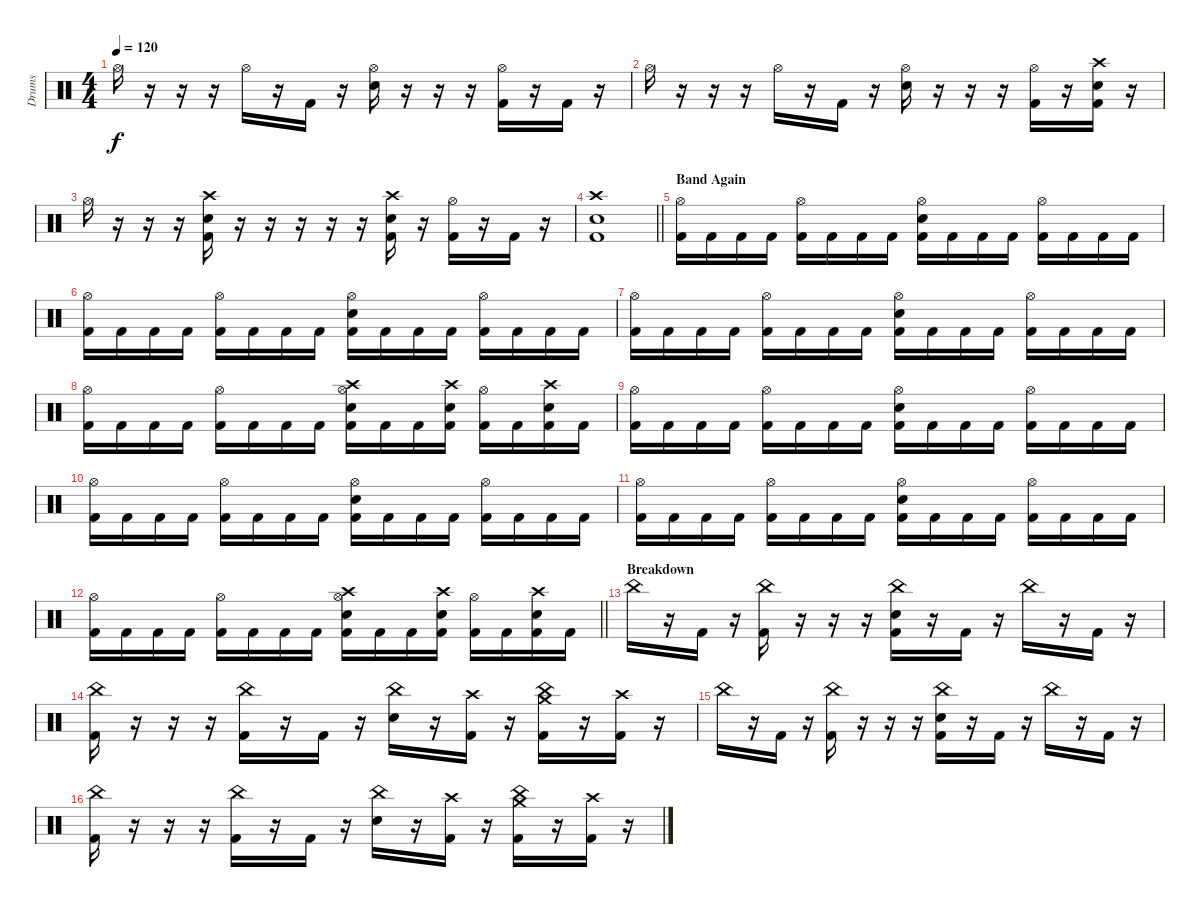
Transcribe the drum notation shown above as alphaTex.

\track ("Drums" "Drums") {instrument percussion}
\staff {score}
\articulation defaults
\ts (4 4)
\tempo 120
\clef neutral
\ks c "Hi-Hat (open)".16{dy f}
r.16 r.16 r.16 "Hi-Hat (open)".16 r.16 "Kick (hit) 2".16 r.16 ("Hi-Hat (open)" "Snare (hit) 2").16 r.16 r.16 r.16 ("Hi-Hat (open)" "Kick (hit) 2").16 r.16 "Kick (hit) 2".16 r.16 |
"Hi-Hat (open)".16 r.16 r.16 r.16 "Hi-Hat (open)".16 r.16 "Kick (hit) 2".16 r.16 ("Hi-Hat (open)" "Snare (hit) 2").16 r.16 r.16 r.16 ("Hi-Hat (open)" "Kick (hit) 2").16 r.16 ("Crash high (hit)" "Snare (hit) 2" "Kick (hit) 2").16 r.16 |
"Hi-Hat (open)".16 r.16 r.16 r.16 ("Crash high (hit)" "Snare (hit) 2" "Kick (hit) 2").16 r.16 r.16 r.16 r.16 r.16 ("Crash high (hit)" "Snare (hit) 2" "Kick (hit) 2").16 r.16 ("Hi-Hat (open)" "Kick (hit) 2").16 r.16 "Kick (hit) 2".16 r.16 |
\barLineRight lightlight
("Crash high (hit)" "Snare (hit) 2" "Kick (hit) 2").1 |
\section ("" "Band Again")
("Hi-Hat (open)" "Kick (hit) 2").16 "Kick (hit) 2".16 "Kick (hit) 2".16 "Kick (hit) 2".16 ("Hi-Hat (open)" "Kick (hit) 2").16 "Kick (hit) 2".16 "Kick (hit) 2".16 "Kick (hit) 2".16 ("Hi-Hat (open)" "Snare (hit) 2" "Kick (hit) 2").16 "Kick (hit) 2".16 "Kick (hit) 2".16 "Kick (hit) 2".16 ("Hi-Hat (open)" "Kick (hit) 2").16 "Kick (hit) 2".16 "Kick (hit) 2".16 "Kick (hit) 2".16 |
("Hi-Hat (open)" "Kick (hit) 2").16 "Kick (hit) 2".16 "Kick (hit) 2".16 "Kick (hit) 2".16 ("Hi-Hat (open)" "Kick (hit) 2").16 "Kick (hit) 2".16 "Kick (hit) 2".16 "Kick (hit) 2".16 ("Hi-Hat (open)" "Snare (hit) 2" "Kick (hit) 2").16 "Kick (hit) 2".16 "Kick (hit) 2".16 "Kick (hit) 2".16 ("Hi-Hat (open)" "Kick (hit) 2").16 "Kick (hit) 2".16 "Kick (hit) 2".16 "Kick (hit) 2".16 |
("Hi-Hat (open)" "Kick (hit) 2").16 "Kick (hit) 2".16 "Kick (hit) 2".16 "Kick (hit) 2".16 ("Hi-Hat (open)" "Kick (hit) 2").16 "Kick (hit) 2".16 "Kick (hit) 2".16 "Kick (hit) 2".16 ("Hi-Hat (open)" "Snare (hit) 2" "Kick (hit) 2").16 "Kick (hit) 2".16 "Kick (hit) 2".16 "Kick (hit) 2".16 ("Hi-Hat (open)" "Kick (hit) 2").16 "Kick (hit) 2".16 "Kick (hit) 2".16 "Kick (hit) 2".16 |
("Hi-Hat (open)" "Kick (hit) 2").16 "Kick (hit) 2".16 "Kick (hit) 2".16 "Kick (hit) 2".16 ("Hi-Hat (open)" "Kick (hit) 2").16 "Kick (hit) 2".16 "Kick (hit) 2".16 "Kick (hit) 2".16 ("Crash high (hit)" "Hi-Hat (open)" "Snare (hit) 2" "Kick (hit) 2").16 "Kick (hit) 2".16 "Kick (hit) 2".16 ("Crash high (hit)" "Snare (hit) 2" "Kick (hit) 2").16 ("Hi-Hat (open)" "Kick (hit) 2").16 "Kick (hit) 2".16 ("Crash high (hit)" "Snare (hit) 2" "Kick (hit) 2").16 "Kick (hit) 2".16 |
("Hi-Hat (open)" "Kick (hit) 2").16 "Kick (hit) 2".16 "Kick (hit) 2".16 "Kick (hit) 2".16 ("Hi-Hat (open)" "Kick (hit) 2").16 "Kick (hit) 2".16 "Kick (hit) 2".16 "Kick (hit) 2".16 ("Hi-Hat (open)" "Snare (hit) 2" "Kick (hit) 2").16 "Kick (hit) 2".16 "Kick (hit) 2".16 "Kick (hit) 2".16 ("Hi-Hat (open)" "Kick (hit) 2").16 "Kick (hit) 2".16 "Kick (hit) 2".16 "Kick (hit) 2".16 |
("Hi-Hat (open)" "Kick (hit) 2").16 "Kick (hit) 2".16 "Kick (hit) 2".16 "Kick (hit) 2".16 ("Hi-Hat (open)" "Kick (hit) 2").16 "Kick (hit) 2".16 "Kick (hit) 2".16 "Kick (hit) 2".16 ("Hi-Hat (open)" "Snare (hit) 2" "Kick (hit) 2").16 "Kick (hit) 2".16 "Kick (hit) 2".16 "Kick (hit) 2".16 ("Hi-Hat (open)" "Kick (hit) 2").16 "Kick (hit) 2".16 "Kick (hit) 2".16 "Kick (hit) 2".16 |
("Hi-Hat (open)" "Kick (hit) 2").16 "Kick (hit) 2".16 "Kick (hit) 2".16 "Kick (hit) 2".16 ("Hi-Hat (open)" "Kick (hit) 2").16 "Kick (hit) 2".16 "Kick (hit) 2".16 "Kick (hit) 2".16 ("Hi-Hat (open)" "Snare (hit) 2" "Kick (hit) 2").16 "Kick (hit) 2".16 "Kick (hit) 2".16 "Kick (hit) 2".16 ("Hi-Hat (open)" "Kick (hit) 2").16 "Kick (hit) 2".16 "Kick (hit) 2".16 "Kick (hit) 2".16 |
\barLineRight lightlight
("Hi-Hat (open)" "Kick (hit) 2").16 "Kick (hit) 2".16 "Kick (hit) 2".16 "Kick (hit) 2".16 ("Hi-Hat (open)" "Kick (hit) 2").16 "Kick (hit) 2".16 "Kick (hit) 2".16 "Kick (hit) 2".16 ("Crash high (hit)" "Hi-Hat (open)" "Snare (hit) 2" "Kick (hit) 2").16 "Kick (hit) 2".16 "Kick (hit) 2".16 ("Crash high (hit)" "Snare (hit) 2" "Kick (hit) 2").16 ("Hi-Hat (open)" "Kick (hit) 2").16 "Kick (hit) 2".16 ("Crash high (hit)" "Snare (hit) 2" "Kick (hit) 2").16 "Kick (hit) 2".16 |
\section ("" "Breakdown")
"China (hit)".16 r.16 "Kick (hit) 2".16 r.16 ("China (hit)" "Kick (hit) 2").16 r.16 r.16 r.16 ("China (hit)" "Snare (hit) 2" "Kick (hit) 2").16 r.16 "Kick (hit) 2".16 r.16 "China (hit)".16 r.16 "Kick (hit) 2".16 r.16 |
("China (hit)" "Kick (hit) 2").16 r.16 r.16 r.16 ("China (hit)" "Kick (hit) 2").16 r.16 "Kick (hit) 2".16 r.16 ("China (hit)" "Snare (hit) 2").16 r.16 ("Crash high (hit)" "Kick (hit) 2").16 r.16 ("Crash medium (hit)" "China (hit)" "Kick (hit) 2").16 r.16 ("Crash high (hit)" "Kick (hit) 2").16 r.16 |
"China (hit)".16 r.16 "Kick (hit) 2".16 r.16 ("China (hit)" "Kick (hit) 2").16 r.16 r.16 r.16 ("China (hit)" "Snare (hit) 2" "Kick (hit) 2").16 r.16 "Kick (hit) 2".16 r.16 "China (hit)".16 r.16 "Kick (hit) 2".16 r.16 |
("China (hit)" "Kick (hit) 2").16 r.16 r.16 r.16 ("China (hit)" "Kick (hit) 2").16 r.16 "Kick (hit) 2".16 r.16 ("China (hit)" "Snare (hit) 2").16 r.16 ("Crash high (hit)" "Kick (hit) 2").16 r.16 ("Crash medium (hit)" "China (hit)" "Kick (hit) 2").16 r.16 ("Crash high (hit)" "Kick (hit) 2").16 r.16
